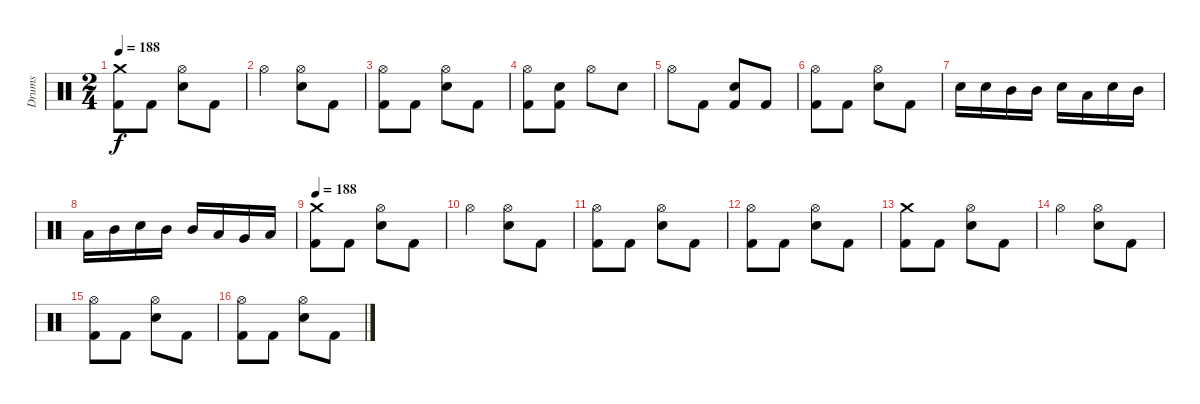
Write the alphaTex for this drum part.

\track ("Drums" "Drums") {instrument percussion}
\staff {score}
\articulation defaults
\ts (2 4)
\tempo 188
\clef neutral
\ks c
("Crash medium (hit)" "Kick (hit) 2").8{dy f} "Kick (hit) 2".8 ("Electric Snare (hit)" "Hi-Hat (open)").8 "Kick (hit) 2".8 |
"Hi-Hat (open)".4 ("Electric Snare (hit)" "Hi-Hat (open)").8 "Kick (hit) 2".8 |
("Hi-Hat (open)" "Kick (hit) 2").8 "Kick (hit) 2".8 ("Electric Snare (hit)" "Hi-Hat (open)").8 "Kick (hit) 2".8 |
("Hi-Hat (open)" "Kick (hit) 2").8 ("Electric Snare (hit)" "Kick (hit) 2").8 "Hi-Hat (open)".8 "Electric Snare (hit)".8 |
"Hi-Hat (open)".8 "Kick (hit) 2".8 ("Electric Snare (hit)" "Kick (hit) 2").8 "Kick (hit) 2".8 |
("Hi-Hat (open)" "Kick (hit) 2").8 "Kick (hit) 2".8 ("Electric Snare (hit)" "Hi-Hat (open)").8 "Kick (hit) 2".8 |
"Electric Snare (hit)".16 "Electric Snare (hit)".16 "Mid Tom (hit)".16 "Mid Tom (hit)".16 "Electric Snare (hit)".16 "Low Tom (hit)".16 "Electric Snare (hit)".16 "Mid Tom (hit)".16 |
"Low Tom (hit)".16 "Mid Tom (hit)".16 "Electric Snare (hit)".16 "Mid Tom (hit)".16 "Mid Tom (hit)".16 "Low Tom (hit)".16 "Very Low Tom (hit)".16 "Low Floor Tom (hit)".16 |
\tempo 188
("Crash medium (hit)" "Kick (hit) 2").8 "Kick (hit) 2".8 ("Electric Snare (hit)" "Hi-Hat (open)").8 "Kick (hit) 2".8 |
"Hi-Hat (open)".4 ("Electric Snare (hit)" "Hi-Hat (open)").8 "Kick (hit) 2".8 |
("Hi-Hat (open)" "Kick (hit) 2").8 "Kick (hit) 2".8 ("Electric Snare (hit)" "Hi-Hat (open)").8 "Kick (hit) 2".8 |
("Hi-Hat (open)" "Kick (hit) 2").8 "Kick (hit) 2".8 ("Electric Snare (hit)" "Hi-Hat (open)").8 "Kick (hit) 2".8 |
("Crash medium (hit)" "Kick (hit) 2").8 "Kick (hit) 2".8 ("Electric Snare (hit)" "Hi-Hat (open)").8 "Kick (hit) 2".8 |
"Hi-Hat (open)".4 ("Electric Snare (hit)" "Hi-Hat (open)").8 "Kick (hit) 2".8 |
("Hi-Hat (open)" "Kick (hit) 2").8 "Kick (hit) 2".8 ("Electric Snare (hit)" "Hi-Hat (open)").8 "Kick (hit) 2".8 |
("Hi-Hat (open)" "Kick (hit) 2").8 "Kick (hit) 2".8 ("Electric Snare (hit)" "Hi-Hat (open)").8 "Kick (hit) 2".8
